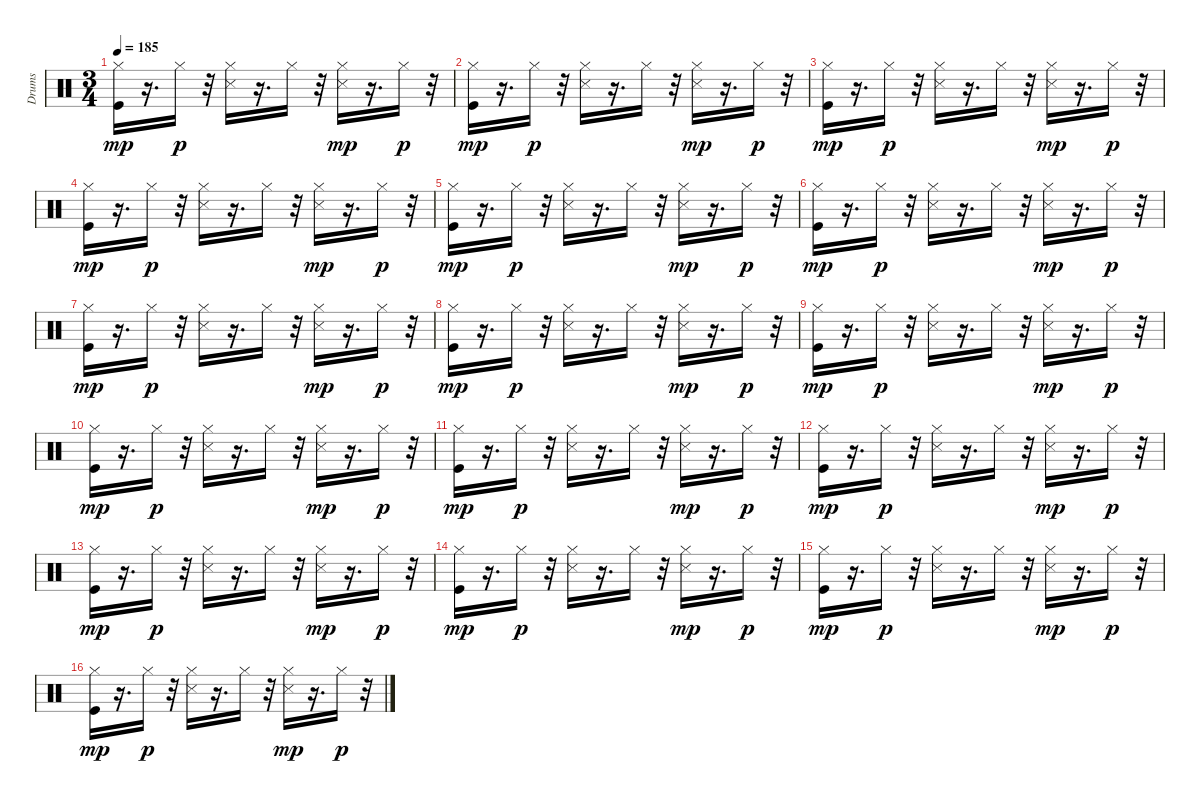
\track ("Drums " "Drums ") {instrument percussion}
\staff {score}
\articulation defaults
\ts (3 4)
\tempo 185
\clef neutral
\ks c
("Kick (hit)" "Hi-Hat (closed)").16{dy mp} r.16{d} "Hi-Hat (closed)".16{dy p} r.32 ("Hi-Hat (closed)" "Snare (side stick) 3").16 r.16{d} "Hi-Hat (closed)".16 r.32 ("Hi-Hat (closed)" "Snare (side stick) 3").16{dy mp} r.16{d} "Hi-Hat (closed)".16{dy p} r.32 |
("Kick (hit)" "Hi-Hat (closed)").16{dy mp} r.16{d} "Hi-Hat (closed)".16{dy p} r.32 ("Hi-Hat (closed)" "Snare (side stick) 3").16 r.16{d} "Hi-Hat (closed)".16 r.32 ("Hi-Hat (closed)" "Snare (side stick) 3").16{dy mp} r.16{d} "Hi-Hat (closed)".16{dy p} r.32 |
("Kick (hit)" "Hi-Hat (closed)").16{dy mp} r.16{d} "Hi-Hat (closed)".16{dy p} r.32 ("Hi-Hat (closed)" "Snare (side stick) 3").16 r.16{d} "Hi-Hat (closed)".16 r.32 ("Hi-Hat (closed)" "Snare (side stick) 3").16{dy mp} r.16{d} "Hi-Hat (closed)".16{dy p} r.32 |
("Kick (hit)" "Hi-Hat (closed)").16{dy mp} r.16{d} "Hi-Hat (closed)".16{dy p} r.32 ("Hi-Hat (closed)" "Snare (side stick) 3").16 r.16{d} "Hi-Hat (closed)".16 r.32 ("Hi-Hat (closed)" "Snare (side stick) 3").16{dy mp} r.16{d} "Hi-Hat (closed)".16{dy p} r.32 |
("Kick (hit)" "Hi-Hat (closed)").16{dy mp} r.16{d} "Hi-Hat (closed)".16{dy p} r.32 ("Hi-Hat (closed)" "Snare (side stick) 3").16 r.16{d} "Hi-Hat (closed)".16 r.32 ("Hi-Hat (closed)" "Snare (side stick) 3").16{dy mp} r.16{d} "Hi-Hat (closed)".16{dy p} r.32 |
("Kick (hit)" "Hi-Hat (closed)").16{dy mp} r.16{d} "Hi-Hat (closed)".16{dy p} r.32 ("Hi-Hat (closed)" "Snare (side stick) 3").16 r.16{d} "Hi-Hat (closed)".16 r.32 ("Hi-Hat (closed)" "Snare (side stick) 3").16{dy mp} r.16{d} "Hi-Hat (closed)".16{dy p} r.32 |
("Kick (hit)" "Hi-Hat (closed)").16{dy mp} r.16{d} "Hi-Hat (closed)".16{dy p} r.32 ("Hi-Hat (closed)" "Snare (side stick) 3").16 r.16{d} "Hi-Hat (closed)".16 r.32 ("Hi-Hat (closed)" "Snare (side stick) 3").16{dy mp} r.16{d} "Hi-Hat (closed)".16{dy p} r.32 |
("Kick (hit)" "Hi-Hat (closed)").16{dy mp} r.16{d} "Hi-Hat (closed)".16{dy p} r.32 ("Hi-Hat (closed)" "Snare (side stick) 3").16 r.16{d} "Hi-Hat (closed)".16 r.32 ("Hi-Hat (closed)" "Snare (side stick) 3").16{dy mp} r.16{d} "Hi-Hat (closed)".16{dy p} r.32 |
("Kick (hit)" "Hi-Hat (closed)").16{dy mp} r.16{d} "Hi-Hat (closed)".16{dy p} r.32 ("Hi-Hat (closed)" "Snare (side stick) 3").16 r.16{d} "Hi-Hat (closed)".16 r.32 ("Hi-Hat (closed)" "Snare (side stick) 3").16{dy mp} r.16{d} "Hi-Hat (closed)".16{dy p} r.32 |
("Kick (hit)" "Hi-Hat (closed)").16{dy mp} r.16{d} "Hi-Hat (closed)".16{dy p} r.32 ("Hi-Hat (closed)" "Snare (side stick) 3").16 r.16{d} "Hi-Hat (closed)".16 r.32 ("Hi-Hat (closed)" "Snare (side stick) 3").16{dy mp} r.16{d} "Hi-Hat (closed)".16{dy p} r.32 |
("Kick (hit)" "Hi-Hat (closed)").16{dy mp} r.16{d} "Hi-Hat (closed)".16{dy p} r.32 ("Hi-Hat (closed)" "Snare (side stick) 3").16 r.16{d} "Hi-Hat (closed)".16 r.32 ("Hi-Hat (closed)" "Snare (side stick) 3").16{dy mp} r.16{d} "Hi-Hat (closed)".16{dy p} r.32 |
("Kick (hit)" "Hi-Hat (closed)").16{dy mp} r.16{d} "Hi-Hat (closed)".16{dy p} r.32 ("Hi-Hat (closed)" "Snare (side stick) 3").16 r.16{d} "Hi-Hat (closed)".16 r.32 ("Hi-Hat (closed)" "Snare (side stick) 3").16{dy mp} r.16{d} "Hi-Hat (closed)".16{dy p} r.32 |
("Kick (hit)" "Hi-Hat (closed)").16{dy mp} r.16{d} "Hi-Hat (closed)".16{dy p} r.32 ("Hi-Hat (closed)" "Snare (side stick) 3").16 r.16{d} "Hi-Hat (closed)".16 r.32 ("Hi-Hat (closed)" "Snare (side stick) 3").16{dy mp} r.16{d} "Hi-Hat (closed)".16{dy p} r.32 |
("Kick (hit)" "Hi-Hat (closed)").16{dy mp} r.16{d} "Hi-Hat (closed)".16{dy p} r.32 ("Hi-Hat (closed)" "Snare (side stick) 3").16 r.16{d} "Hi-Hat (closed)".16 r.32 ("Hi-Hat (closed)" "Snare (side stick) 3").16{dy mp} r.16{d} "Hi-Hat (closed)".16{dy p} r.32 |
("Kick (hit)" "Hi-Hat (closed)").16{dy mp} r.16{d} "Hi-Hat (closed)".16{dy p} r.32 ("Hi-Hat (closed)" "Snare (side stick) 3").16 r.16{d} "Hi-Hat (closed)".16 r.32 ("Hi-Hat (closed)" "Snare (side stick) 3").16{dy mp} r.16{d} "Hi-Hat (closed)".16{dy p} r.32 |
("Kick (hit)" "Hi-Hat (closed)").16{dy mp} r.16{d} "Hi-Hat (closed)".16{dy p} r.32 ("Hi-Hat (closed)" "Snare (side stick) 3").16 r.16{d} "Hi-Hat (closed)".16 r.32 ("Hi-Hat (closed)" "Snare (side stick) 3").16{dy mp} r.16{d} "Hi-Hat (closed)".16{dy p} r.32
